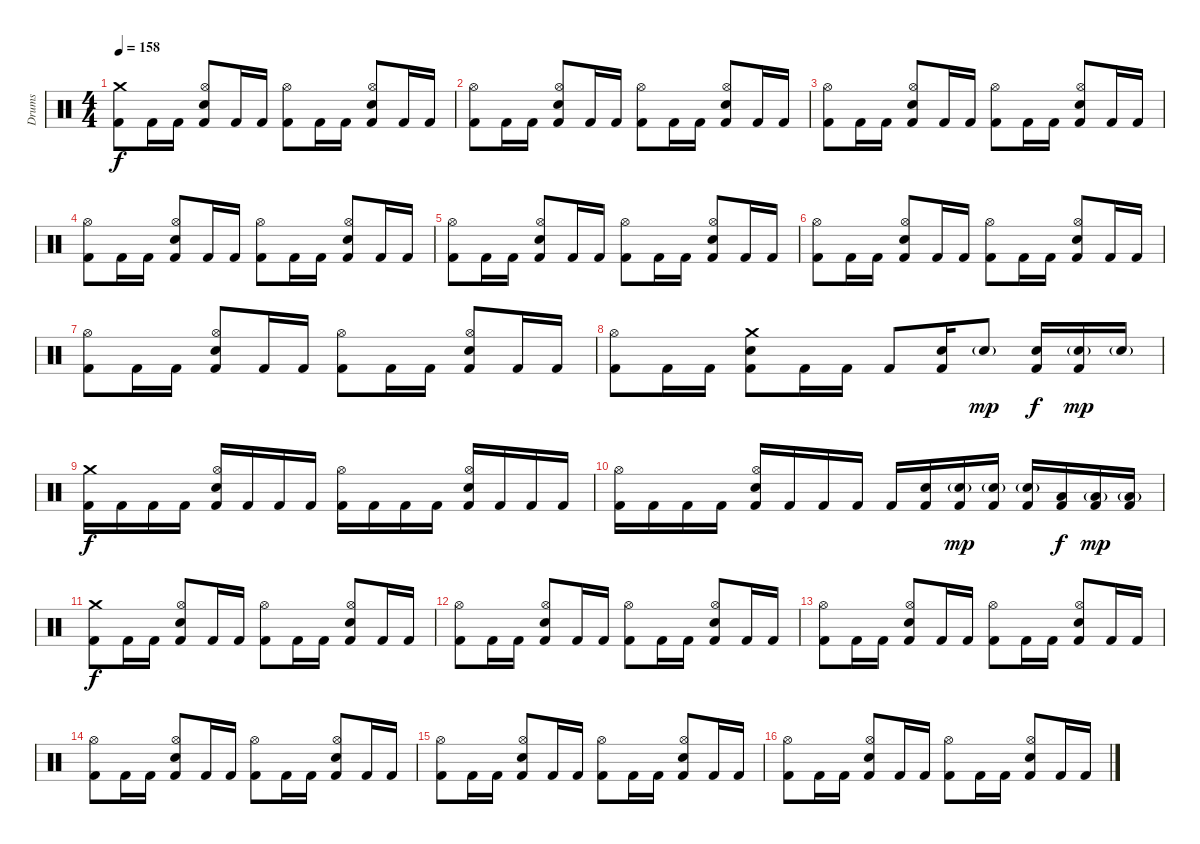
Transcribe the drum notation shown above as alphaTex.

\track ("Drums" "Drums") {instrument percussion}
\staff {score}
\articulation defaults
\ts (4 4)
\section ("" "")
\tempo 158
\clef neutral
\ks c
("Crash medium (hit)" "Kick (hit) 2").8{dy f} "Kick (hit) 2".16 "Kick (hit) 2".16 ("Hi-Hat (open)" "Electric Snare (hit)" "Kick (hit) 2").8 "Kick (hit) 2".16 "Kick (hit) 2".16 ("Hi-Hat (open)" "Kick (hit) 2").8 "Kick (hit) 2".16 "Kick (hit) 2".16 ("Hi-Hat (open)" "Electric Snare (hit)" "Kick (hit) 2").8 "Kick (hit) 2".16 "Kick (hit) 2".16 |
("Hi-Hat (open)" "Kick (hit) 2").8 "Kick (hit) 2".16 "Kick (hit) 2".16 ("Hi-Hat (open)" "Electric Snare (hit)" "Kick (hit) 2").8 "Kick (hit) 2".16 "Kick (hit) 2".16 ("Hi-Hat (open)" "Kick (hit) 2").8 "Kick (hit) 2".16 "Kick (hit) 2".16 ("Hi-Hat (open)" "Electric Snare (hit)" "Kick (hit) 2").8 "Kick (hit) 2".16 "Kick (hit) 2".16 |
("Hi-Hat (open)" "Kick (hit) 2").8 "Kick (hit) 2".16 "Kick (hit) 2".16 ("Hi-Hat (open)" "Electric Snare (hit)" "Kick (hit) 2").8 "Kick (hit) 2".16 "Kick (hit) 2".16 ("Hi-Hat (open)" "Kick (hit) 2").8 "Kick (hit) 2".16 "Kick (hit) 2".16 ("Hi-Hat (open)" "Electric Snare (hit)" "Kick (hit) 2").8 "Kick (hit) 2".16 "Kick (hit) 2".16 |
("Hi-Hat (open)" "Kick (hit) 2").8 "Kick (hit) 2".16 "Kick (hit) 2".16 ("Hi-Hat (open)" "Electric Snare (hit)" "Kick (hit) 2").8 "Kick (hit) 2".16 "Kick (hit) 2".16 ("Hi-Hat (open)" "Kick (hit) 2").8 "Kick (hit) 2".16 "Kick (hit) 2".16 ("Hi-Hat (open)" "Electric Snare (hit)" "Kick (hit) 2").8 "Kick (hit) 2".16 "Kick (hit) 2".16 |
("Hi-Hat (open)" "Kick (hit) 2").8 "Kick (hit) 2".16 "Kick (hit) 2".16 ("Hi-Hat (open)" "Electric Snare (hit)" "Kick (hit) 2").8 "Kick (hit) 2".16 "Kick (hit) 2".16 ("Hi-Hat (open)" "Kick (hit) 2").8 "Kick (hit) 2".16 "Kick (hit) 2".16 ("Hi-Hat (open)" "Electric Snare (hit)" "Kick (hit) 2").8 "Kick (hit) 2".16 "Kick (hit) 2".16 |
("Hi-Hat (open)" "Kick (hit) 2").8 "Kick (hit) 2".16 "Kick (hit) 2".16 ("Hi-Hat (open)" "Electric Snare (hit)" "Kick (hit) 2").8 "Kick (hit) 2".16 "Kick (hit) 2".16 ("Hi-Hat (open)" "Kick (hit) 2").8 "Kick (hit) 2".16 "Kick (hit) 2".16 ("Hi-Hat (open)" "Electric Snare (hit)" "Kick (hit) 2").8 "Kick (hit) 2".16 "Kick (hit) 2".16 |
("Hi-Hat (open)" "Kick (hit) 2").8 "Kick (hit) 2".16 "Kick (hit) 2".16 ("Hi-Hat (open)" "Electric Snare (hit)" "Kick (hit) 2").8 "Kick (hit) 2".16 "Kick (hit) 2".16 ("Hi-Hat (open)" "Kick (hit) 2").8 "Kick (hit) 2".16 "Kick (hit) 2".16 ("Hi-Hat (open)" "Electric Snare (hit)" "Kick (hit) 2").8 "Kick (hit) 2".16 "Kick (hit) 2".16 |
("Hi-Hat (open)" "Kick (hit) 2").8 "Kick (hit) 2".16 "Kick (hit) 2".16 ("Crash medium (hit)" "Electric Snare (hit)" "Kick (hit) 2").8 "Kick (hit) 2".16 "Kick (hit) 2".16 "Kick (hit) 2".8 ("Electric Snare (hit)" "Kick (hit) 2").16 "Electric Snare (hit)"{g}.8{dy mp} ("Electric Snare (hit)" "Kick (hit) 2").16{dy f} ("Electric Snare (hit)"{g} "Kick (hit) 2").16{dy mp} "Electric Snare (hit)"{g}.16 |
("Crash medium (hit)" "Kick (hit) 2").16{dy f} "Kick (hit) 2".16 "Kick (hit) 2".16 "Kick (hit) 2".16 ("Hi-Hat (open)" "Electric Snare (hit)" "Kick (hit) 2").16 "Kick (hit) 2".16 "Kick (hit) 2".16 "Kick (hit) 2".16 ("Hi-Hat (open)" "Kick (hit) 2").16 "Kick (hit) 2".16 "Kick (hit) 2".16 "Kick (hit) 2".16 ("Hi-Hat (open)" "Electric Snare (hit)" "Kick (hit) 2").16 "Kick (hit) 2".16 "Kick (hit) 2".16 "Kick (hit) 2".16 |
\section ("" "")
("Hi-Hat (open)" "Kick (hit) 2").16 "Kick (hit) 2".16 "Kick (hit) 2".16 "Kick (hit) 2".16 ("Hi-Hat (open)" "Electric Snare (hit)" "Kick (hit) 2").16 "Kick (hit) 2".16 "Kick (hit) 2".16 "Kick (hit) 2".16 "Kick (hit) 2".16 ("Electric Snare (hit)" "Kick (hit) 2").16 ("Electric Snare (hit)"{g} "Kick (hit) 2").16{dy mp} ("Electric Snare (hit)"{g} "Kick (hit) 2").16 ("Electric Snare (hit)"{g} "Kick (hit) 2").16 ("Low Tom (hit)" "Kick (hit) 2").16{dy f} ("Low Tom (hit)"{g} "Kick (hit) 2").16{dy mp} ("Low Tom (hit)"{g} "Kick (hit) 2").16 |
("Crash medium (hit)" "Kick (hit) 2").8{dy f} "Kick (hit) 2".16 "Kick (hit) 2".16 ("Hi-Hat (open)" "Electric Snare (hit)" "Kick (hit) 2").8 "Kick (hit) 2".16 "Kick (hit) 2".16 ("Hi-Hat (open)" "Kick (hit) 2").8 "Kick (hit) 2".16 "Kick (hit) 2".16 ("Hi-Hat (open)" "Electric Snare (hit)" "Kick (hit) 2").8 "Kick (hit) 2".16 "Kick (hit) 2".16 |
("Hi-Hat (open)" "Kick (hit) 2").8 "Kick (hit) 2".16 "Kick (hit) 2".16 ("Hi-Hat (open)" "Electric Snare (hit)" "Kick (hit) 2").8 "Kick (hit) 2".16 "Kick (hit) 2".16 ("Hi-Hat (open)" "Kick (hit) 2").8 "Kick (hit) 2".16 "Kick (hit) 2".16 ("Hi-Hat (open)" "Electric Snare (hit)" "Kick (hit) 2").8 "Kick (hit) 2".16 "Kick (hit) 2".16 |
("Hi-Hat (open)" "Kick (hit) 2").8 "Kick (hit) 2".16 "Kick (hit) 2".16 ("Hi-Hat (open)" "Electric Snare (hit)" "Kick (hit) 2").8 "Kick (hit) 2".16 "Kick (hit) 2".16 ("Hi-Hat (open)" "Kick (hit) 2").8 "Kick (hit) 2".16 "Kick (hit) 2".16 ("Hi-Hat (open)" "Electric Snare (hit)" "Kick (hit) 2").8 "Kick (hit) 2".16 "Kick (hit) 2".16 |
("Hi-Hat (open)" "Kick (hit) 2").8 "Kick (hit) 2".16 "Kick (hit) 2".16 ("Hi-Hat (open)" "Electric Snare (hit)" "Kick (hit) 2").8 "Kick (hit) 2".16 "Kick (hit) 2".16 ("Hi-Hat (open)" "Kick (hit) 2").8 "Kick (hit) 2".16 "Kick (hit) 2".16 ("Hi-Hat (open)" "Electric Snare (hit)" "Kick (hit) 2").8 "Kick (hit) 2".16 "Kick (hit) 2".16 |
("Hi-Hat (open)" "Kick (hit) 2").8 "Kick (hit) 2".16 "Kick (hit) 2".16 ("Hi-Hat (open)" "Electric Snare (hit)" "Kick (hit) 2").8 "Kick (hit) 2".16 "Kick (hit) 2".16 ("Hi-Hat (open)" "Kick (hit) 2").8 "Kick (hit) 2".16 "Kick (hit) 2".16 ("Hi-Hat (open)" "Electric Snare (hit)" "Kick (hit) 2").8 "Kick (hit) 2".16 "Kick (hit) 2".16 |
("Hi-Hat (open)" "Kick (hit) 2").8 "Kick (hit) 2".16 "Kick (hit) 2".16 ("Hi-Hat (open)" "Electric Snare (hit)" "Kick (hit) 2").8 "Kick (hit) 2".16 "Kick (hit) 2".16 ("Hi-Hat (open)" "Kick (hit) 2").8 "Kick (hit) 2".16 "Kick (hit) 2".16 ("Hi-Hat (open)" "Electric Snare (hit)" "Kick (hit) 2").8 "Kick (hit) 2".16 "Kick (hit) 2".16
